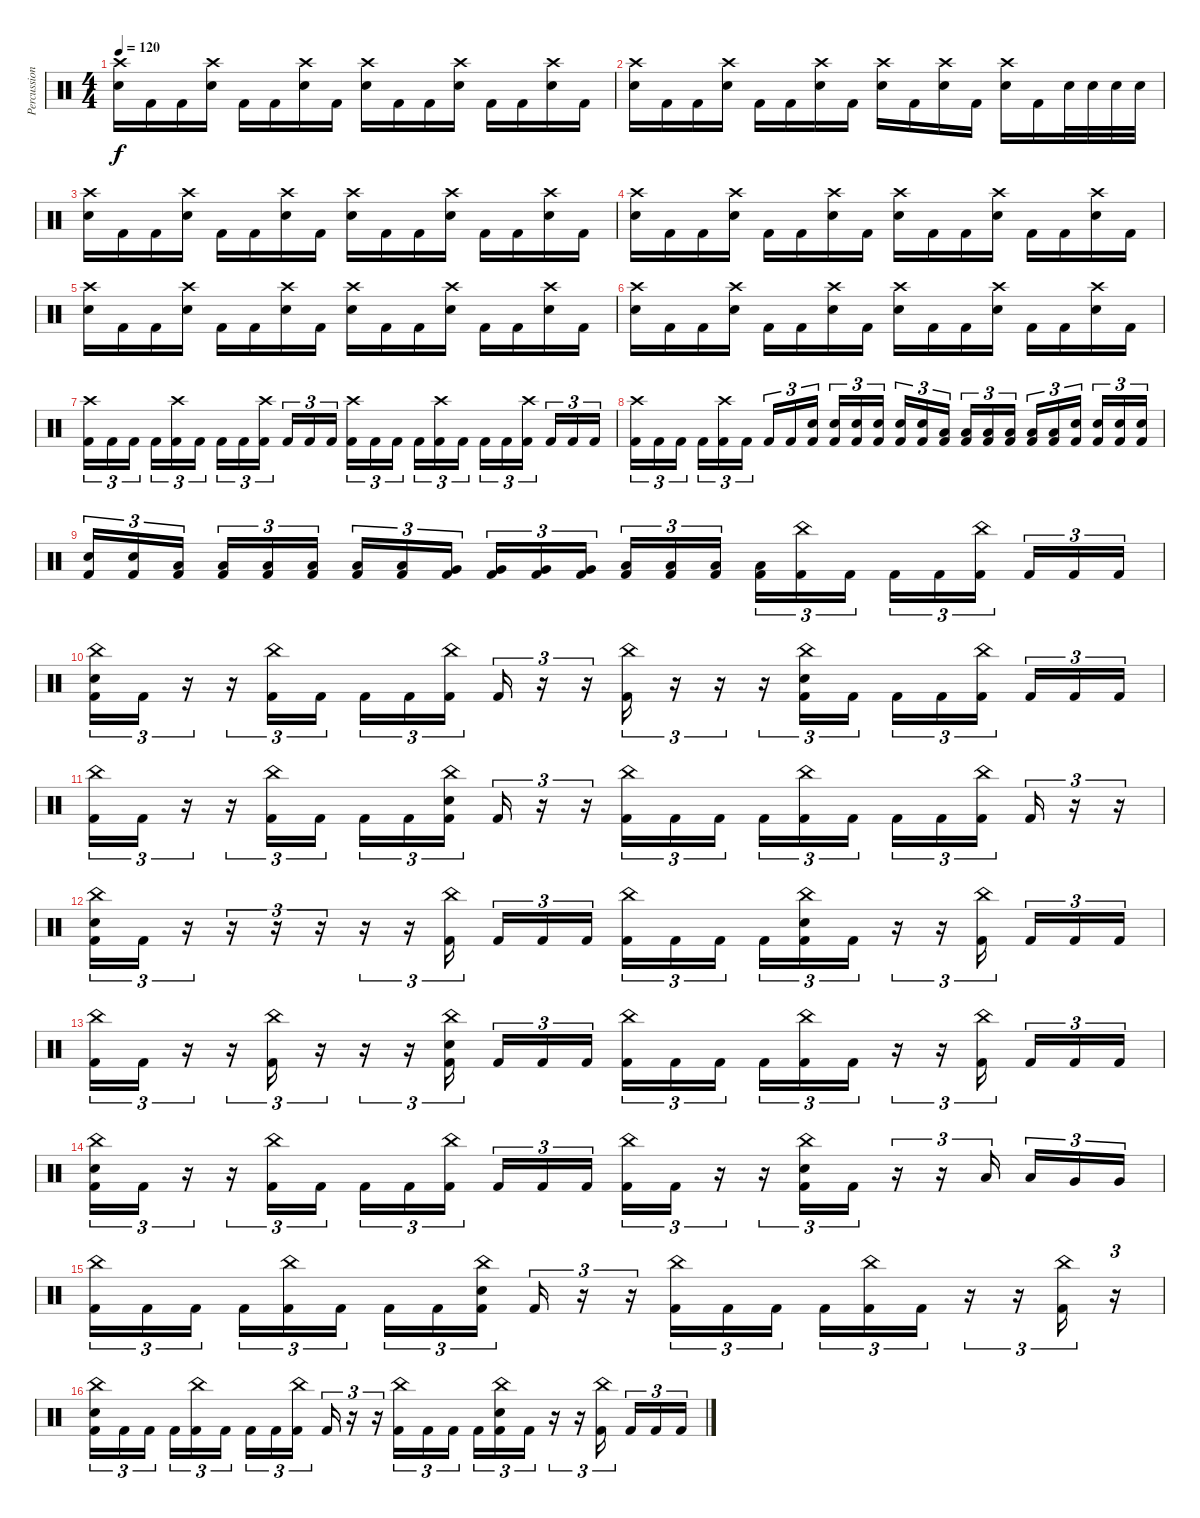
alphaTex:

\track ("Percussion" "Percussion") {instrument percussion}
\staff {score}
\articulation defaults
\ts (4 4)
\tempo 120
\clef neutral
\ks c
("Electric Snare (hit)" "Crash high (hit)").16{dy f} "Kick (hit) 2".16 "Kick (hit) 2".16 ("Electric Snare (hit)" "Crash high (hit)").16 "Kick (hit) 2".16 "Kick (hit) 2".16 ("Electric Snare (hit)" "Crash high (hit)").16 "Kick (hit) 2".16 ("Electric Snare (hit)" "Crash high (hit)").16 "Kick (hit) 2".16 "Kick (hit) 2".16 ("Electric Snare (hit)" "Crash high (hit)").16 "Kick (hit) 2".16 "Kick (hit) 2".16 ("Electric Snare (hit)" "Crash high (hit)").16 "Kick (hit) 2".16 |
("Electric Snare (hit)" "Crash high (hit)").16 "Kick (hit) 2".16 "Kick (hit) 2".16 ("Electric Snare (hit)" "Crash high (hit)").16 "Kick (hit) 2".16 "Kick (hit) 2".16 ("Electric Snare (hit)" "Crash high (hit)").16 "Kick (hit) 2".16 ("Electric Snare (hit)" "Crash high (hit)").16 "Kick (hit) 2".16 ("Electric Snare (hit)" "Crash high (hit)").16 "Kick (hit) 2".16 ("Electric Snare (hit)" "Crash high (hit)").16 "Kick (hit) 2".16 "Electric Snare (hit)".32 "Electric Snare (hit)".32 "Electric Snare (hit)".32 "Electric Snare (hit)".32 |
("Electric Snare (hit)" "Crash high (hit)").16 "Kick (hit) 2".16 "Kick (hit) 2".16 ("Electric Snare (hit)" "Crash high (hit)").16 "Kick (hit) 2".16 "Kick (hit) 2".16 ("Electric Snare (hit)" "Crash high (hit)").16 "Kick (hit) 2".16 ("Electric Snare (hit)" "Crash high (hit)").16 "Kick (hit) 2".16 "Kick (hit) 2".16 ("Electric Snare (hit)" "Crash high (hit)").16 "Kick (hit) 2".16 "Kick (hit) 2".16 ("Electric Snare (hit)" "Crash high (hit)").16 "Kick (hit) 2".16 |
("Electric Snare (hit)" "Crash high (hit)").16 "Kick (hit) 2".16 "Kick (hit) 2".16 ("Electric Snare (hit)" "Crash high (hit)").16 "Kick (hit) 2".16 "Kick (hit) 2".16 ("Electric Snare (hit)" "Crash high (hit)").16 "Kick (hit) 2".16 ("Electric Snare (hit)" "Crash high (hit)").16 "Kick (hit) 2".16 "Kick (hit) 2".16 ("Electric Snare (hit)" "Crash high (hit)").16 "Kick (hit) 2".16 "Kick (hit) 2".16 ("Electric Snare (hit)" "Crash high (hit)").16 "Kick (hit) 2".16 |
("Electric Snare (hit)" "Crash high (hit)").16 "Kick (hit) 2".16 "Kick (hit) 2".16 ("Electric Snare (hit)" "Crash high (hit)").16 "Kick (hit) 2".16 "Kick (hit) 2".16 ("Electric Snare (hit)" "Crash high (hit)").16 "Kick (hit) 2".16 ("Electric Snare (hit)" "Crash high (hit)").16 "Kick (hit) 2".16 "Kick (hit) 2".16 ("Electric Snare (hit)" "Crash high (hit)").16 "Kick (hit) 2".16 "Kick (hit) 2".16 ("Electric Snare (hit)" "Crash high (hit)").16 "Kick (hit) 2".16 |
("Electric Snare (hit)" "Crash high (hit)").16 "Kick (hit) 2".16 "Kick (hit) 2".16 ("Electric Snare (hit)" "Crash high (hit)").16 "Kick (hit) 2".16 "Kick (hit) 2".16 ("Electric Snare (hit)" "Crash high (hit)").16 "Kick (hit) 2".16 ("Electric Snare (hit)" "Crash high (hit)").16 "Kick (hit) 2".16 "Kick (hit) 2".16 ("Electric Snare (hit)" "Crash high (hit)").16 "Kick (hit) 2".16 "Kick (hit) 2".16 ("Electric Snare (hit)" "Crash high (hit)").16 "Kick (hit) 2".16 |
("Kick (hit) 2" "Crash high (hit)").16{tu (3 2)} "Kick (hit) 2".16{tu (3 2)} "Kick (hit) 2".16{tu (3 2)} "Kick (hit) 2".16{tu (3 2)} ("Kick (hit) 2" "Crash high (hit)").16{tu (3 2)} "Kick (hit) 2".16{tu (3 2)} "Kick (hit) 2".16{tu (3 2)} "Kick (hit) 2".16{tu (3 2)} ("Kick (hit) 2" "Crash high (hit)").16{tu (3 2)} "Kick (hit) 2".16{tu (3 2)} "Kick (hit) 2".16{tu (3 2)} "Kick (hit) 2".16{tu (3 2)} ("Kick (hit) 2" "Crash high (hit)").16{tu (3 2)} "Kick (hit) 2".16{tu (3 2)} "Kick (hit) 2".16{tu (3 2)} "Kick (hit) 2".16{tu (3 2)} ("Kick (hit) 2" "Crash high (hit)").16{tu (3 2)} "Kick (hit) 2".16{tu (3 2)} "Kick (hit) 2".16{tu (3 2)} "Kick (hit) 2".16{tu (3 2)} ("Kick (hit) 2" "Crash high (hit)").16{tu (3 2)} "Kick (hit) 2".16{tu (3 2)} "Kick (hit) 2".16{tu (3 2)} "Kick (hit) 2".16{tu (3 2)} |
("Kick (hit) 2" "Crash high (hit)").16{tu (3 2)} "Kick (hit) 2".16{tu (3 2)} "Kick (hit) 2".16{tu (3 2)} "Kick (hit) 2".16{tu (3 2)} ("Kick (hit) 2" "Crash high (hit)").16{tu (3 2)} "Kick (hit) 2".16{tu (3 2)} "Kick (hit) 2".16{tu (3 2)} "Kick (hit) 2".16{tu (3 2)} ("Kick (hit) 2" "Electric Snare (hit)").16{tu (3 2)} ("Kick (hit) 2" "Electric Snare (hit)").16{tu (3 2)} ("Kick (hit) 2" "Electric Snare (hit)").16{tu (3 2)} ("Kick (hit) 2" "Electric Snare (hit)").16{tu (3 2)} ("Kick (hit) 2" "Electric Snare (hit)").16{tu (3 2)} ("Kick (hit) 2" "Electric Snare (hit)").16{tu (3 2)} ("Kick (hit) 2" "Low Tom (hit)").16{tu (3 2)} ("Kick (hit) 2" "Low Tom (hit)").16{tu (3 2)} ("Kick (hit) 2" "Low Tom (hit)").16{tu (3 2)} ("Kick (hit) 2" "Low Tom (hit)").16{tu (3 2)} ("Kick (hit) 2" "Low Tom (hit)").16{tu (3 2)} ("Kick (hit) 2" "Low Tom (hit)").16{tu (3 2)} ("Kick (hit) 2" "Electric Snare (hit)").16{tu (3 2)} ("Kick (hit) 2" "Electric Snare (hit)").16{tu (3 2)} ("Kick (hit) 2" "Electric Snare (hit)").16{tu (3 2)} ("Kick (hit) 2" "Electric Snare (hit)").16{tu (3 2)} |
("Kick (hit) 2" "Electric Snare (hit)").16{tu (3 2)} ("Kick (hit) 2" "Electric Snare (hit)").16{tu (3 2)} ("Kick (hit) 2" "Low Floor Tom (hit)").16{tu (3 2)} ("Kick (hit) 2" "Low Floor Tom (hit)").16{tu (3 2)} ("Kick (hit) 2" "Low Floor Tom (hit)").16{tu (3 2)} ("Kick (hit) 2" "Low Floor Tom (hit)").16{tu (3 2)} ("Kick (hit) 2" "Low Floor Tom (hit)").16{tu (3 2)} ("Kick (hit) 2" "Low Floor Tom (hit)").16{tu (3 2)} ("Kick (hit) 2" "Very Low Tom (hit)").16{tu (3 2)} ("Kick (hit) 2" "Very Low Tom (hit)").16{tu (3 2)} ("Kick (hit) 2" "Very Low Tom (hit)").16{tu (3 2)} ("Kick (hit) 2" "Very Low Tom (hit)").16{tu (3 2)} ("Kick (hit) 2" "Low Floor Tom (hit)").16{tu (3 2)} ("Kick (hit) 2" "Low Floor Tom (hit)").16{tu (3 2)} ("Kick (hit) 2" "Low Floor Tom (hit)").16{tu (3 2)} ("Kick (hit) 2" "Low Floor Tom (hit)").16{tu (3 2)} ("Kick (hit) 2" "China (hit)").16{tu (3 2)} "Kick (hit) 2".16{tu (3 2)} "Kick (hit) 2".16{tu (3 2)} "Kick (hit) 2".16{tu (3 2)} ("Kick (hit) 2" "China (hit)").16{tu (3 2)} "Kick (hit) 2".16{tu (3 2)} "Kick (hit) 2".16{tu (3 2)} "Kick (hit) 2".16{tu (3 2)} |
("Kick (hit) 2" "China (hit)" "Electric Snare (hit)").16{tu (3 2)} "Kick (hit) 2".16{tu (3 2)} r.16{tu (3 2)} r.16{tu (3 2)} ("Kick (hit) 2" "China (hit)").16{tu (3 2)} "Kick (hit) 2".16{tu (3 2)} "Kick (hit) 2".16{tu (3 2)} "Kick (hit) 2".16{tu (3 2)} ("Kick (hit) 2" "China (hit)").16{tu (3 2)} "Kick (hit) 2".16{tu (3 2)} r.16{tu (3 2)} r.16{tu (3 2)} ("Kick (hit) 2" "China (hit)").16{tu (3 2)} r.16{tu (3 2)} r.16{tu (3 2)} r.16{tu (3 2)} ("Kick (hit) 2" "Electric Snare (hit)" "China (hit)").16{tu (3 2)} "Kick (hit) 2".16{tu (3 2)} "Kick (hit) 2".16{tu (3 2)} "Kick (hit) 2".16{tu (3 2)} ("Kick (hit) 2" "China (hit)").16{tu (3 2)} "Kick (hit) 2".16{tu (3 2)} "Kick (hit) 2".16{tu (3 2)} "Kick (hit) 2".16{tu (3 2)} |
("Kick (hit) 2" "China (hit)").16{tu (3 2)} "Kick (hit) 2".16{tu (3 2)} r.16{tu (3 2)} r.16{tu (3 2)} ("Kick (hit) 2" "China (hit)").16{tu (3 2)} "Kick (hit) 2".16{tu (3 2)} "Kick (hit) 2".16{tu (3 2)} "Kick (hit) 2".16{tu (3 2)} ("Kick (hit) 2" "Electric Snare (hit)" "China (hit)").16{tu (3 2)} "Kick (hit) 2".16{tu (3 2)} r.16{tu (3 2)} r.16{tu (3 2)} ("Kick (hit) 2" "China (hit)").16{tu (3 2)} "Kick (hit) 2".16{tu (3 2)} "Kick (hit) 2".16{tu (3 2)} "Kick (hit) 2".16{tu (3 2)} ("Kick (hit) 2" "China (hit)").16{tu (3 2)} "Kick (hit) 2".16{tu (3 2)} "Kick (hit) 2".16{tu (3 2)} "Kick (hit) 2".16{tu (3 2)} ("Kick (hit) 2" "China (hit)").16{tu (3 2)} "Kick (hit) 2".16{tu (3 2)} r.16{tu (3 2)} r.16{tu (3 2)} |
("Kick (hit) 2" "Electric Snare (hit)" "China (hit)").16{tu (3 2)} "Kick (hit) 2".16{tu (3 2)} r.16{tu (3 2)} r.16{tu (3 2)} r.16{tu (3 2)} r.16{tu (3 2)} r.16{tu (3 2)} r.16{tu (3 2)} ("Kick (hit) 2" "China (hit)").16{tu (3 2)} "Kick (hit) 2".16{tu (3 2)} "Kick (hit) 2".16{tu (3 2)} "Kick (hit) 2".16{tu (3 2)} ("Kick (hit) 2" "China (hit)").16{tu (3 2)} "Kick (hit) 2".16{tu (3 2)} "Kick (hit) 2".16{tu (3 2)} "Kick (hit) 2".16{tu (3 2)} ("Kick (hit) 2" "Electric Snare (hit)" "China (hit)").16{tu (3 2)} "Kick (hit) 2".16{tu (3 2)} r.16{tu (3 2)} r.16{tu (3 2)} ("Kick (hit) 2" "China (hit)").16{tu (3 2)} "Kick (hit) 2".16{tu (3 2)} "Kick (hit) 2".16{tu (3 2)} "Kick (hit) 2".16{tu (3 2)} |
("Kick (hit) 2" "China (hit)").16{tu (3 2)} "Kick (hit) 2".16{tu (3 2)} r.16{tu (3 2)} r.16{tu (3 2)} ("Kick (hit) 2" "China (hit)").16{tu (3 2)} r.16{tu (3 2)} r.16{tu (3 2)} r.16{tu (3 2)} ("Kick (hit) 2" "Electric Snare (hit)" "China (hit)").16{tu (3 2)} "Kick (hit) 2".16{tu (3 2)} "Kick (hit) 2".16{tu (3 2)} "Kick (hit) 2".16{tu (3 2)} ("Kick (hit) 2" "China (hit)").16{tu (3 2)} "Kick (hit) 2".16{tu (3 2)} "Kick (hit) 2".16{tu (3 2)} "Kick (hit) 2".16{tu (3 2)} ("Kick (hit) 2" "China (hit)").16{tu (3 2)} "Kick (hit) 2".16{tu (3 2)} r.16{tu (3 2)} r.16{tu (3 2)} ("Kick (hit) 2" "China (hit)").16{tu (3 2)} "Kick (hit) 2".16{tu (3 2)} "Kick (hit) 2".16{tu (3 2)} "Kick (hit) 2".16{tu (3 2)} |
("Kick (hit) 2" "Electric Snare (hit)" "China (hit)").16{tu (3 2)} "Kick (hit) 2".16{tu (3 2)} r.16{tu (3 2)} r.16{tu (3 2)} ("Kick (hit) 2" "China (hit)").16{tu (3 2)} "Kick (hit) 2".16{tu (3 2)} "Kick (hit) 2".16{tu (3 2)} "Kick (hit) 2".16{tu (3 2)} ("Kick (hit) 2" "China (hit)").16{tu (3 2)} "Kick (hit) 2".16{tu (3 2)} "Kick (hit) 2".16{tu (3 2)} "Kick (hit) 2".16{tu (3 2)} ("Kick (hit) 2" "China (hit)").16{tu (3 2)} "Kick (hit) 2".16{tu (3 2)} r.16{tu (3 2)} r.16{tu (3 2)} ("Kick (hit) 2" "Electric Snare (hit)" "China (hit)").16{tu (3 2)} "Kick (hit) 2".16{tu (3 2)} r.16{tu (3 2)} r.16{tu (3 2)} "Low Tom (hit)".16{tu (3 2)} "Low Tom (hit)".16{tu (3 2)} "Very Low Tom (hit)".16{tu (3 2)} "Very Low Tom (hit)".16{tu (3 2)} |
("Kick (hit) 2" "China (hit)").16{tu (3 2)} "Kick (hit) 2".16{tu (3 2)} "Kick (hit) 2".16{tu (3 2)} "Kick (hit) 2".16{tu (3 2)} ("Kick (hit) 2" "China (hit)").16{tu (3 2)} "Kick (hit) 2".16{tu (3 2)} "Kick (hit) 2".16{tu (3 2)} "Kick (hit) 2".16{tu (3 2)} ("Kick (hit) 2" "China (hit)" "Electric Snare (hit)").16{tu (3 2)} "Kick (hit) 2".16{tu (3 2)} r.16{tu (3 2)} r.16{tu (3 2)} ("Kick (hit) 2" "China (hit)").16{tu (3 2)} "Kick (hit) 2".16{tu (3 2)} "Kick (hit) 2".16{tu (3 2)} "Kick (hit) 2".16{tu (3 2)} ("Kick (hit) 2" "China (hit)").16{tu (3 2)} "Kick (hit) 2".16{tu (3 2)} r.16{tu (3 2)} r.16{tu (3 2)} ("Kick (hit) 2" "China (hit)").16{tu (3 2)} r.16{tu (3 2)} |
("Kick (hit) 2" "China (hit)" "Electric Snare (hit)").16{tu (3 2)} "Kick (hit) 2".16{tu (3 2)} "Kick (hit) 2".16{tu (3 2)} "Kick (hit) 2".16{tu (3 2)} ("Kick (hit) 2" "China (hit)").16{tu (3 2)} "Kick (hit) 2".16{tu (3 2)} "Kick (hit) 2".16{tu (3 2)} "Kick (hit) 2".16{tu (3 2)} ("Kick (hit) 2" "China (hit)").16{tu (3 2)} "Kick (hit) 2".16{tu (3 2)} r.16{tu (3 2)} r.16{tu (3 2)} ("Kick (hit) 2" "China (hit)").16{tu (3 2)} "Kick (hit) 2".16{tu (3 2)} "Kick (hit) 2".16{tu (3 2)} "Kick (hit) 2".16{tu (3 2)} ("Kick (hit) 2" "Electric Snare (hit)" "China (hit)").16{tu (3 2)} "Kick (hit) 2".16{tu (3 2)} r.16{tu (3 2)} r.16{tu (3 2)} ("Kick (hit) 2" "China (hit)").16{tu (3 2)} "Kick (hit) 2".16{tu (3 2)} "Kick (hit) 2".16{tu (3 2)} "Kick (hit) 2".16{tu (3 2)}
